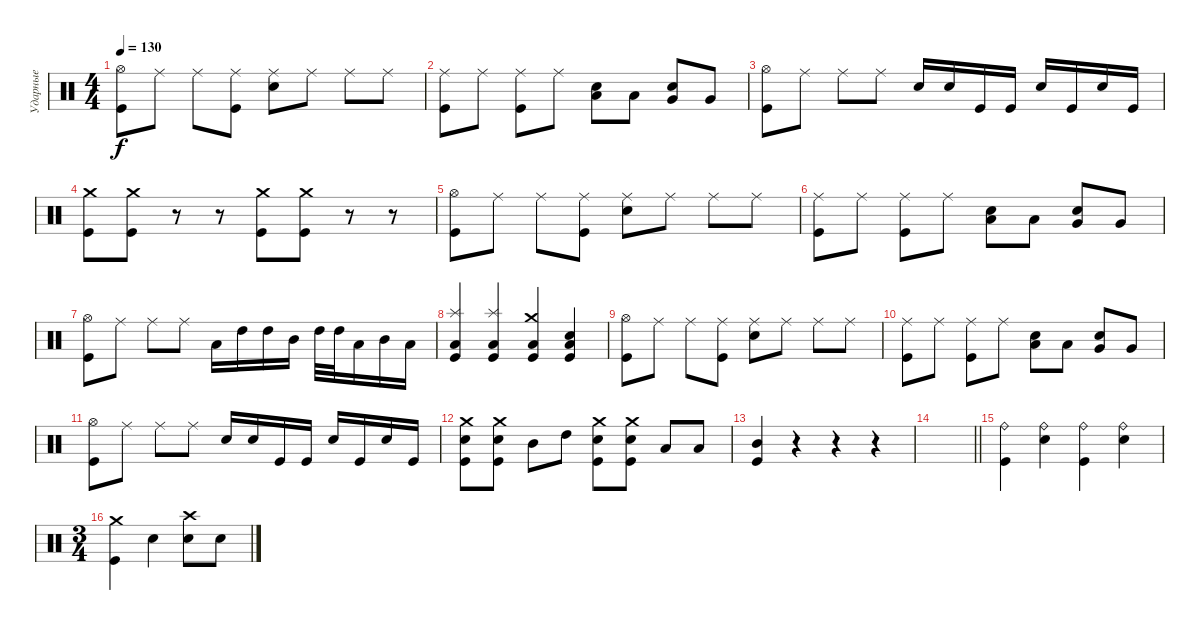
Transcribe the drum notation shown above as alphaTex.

\track ("Ударные" "Ударные") {instrument percussion}
\staff {score}
\articulation defaults
\ts (4 4)
\tempo 130
\clef neutral
\ks c
("Kick (hit)" "Hi-Hat (open)").8{dy f} "Ride (middle)".8 "Ride (middle)".8 ("Kick (hit)" "Ride (middle)").8 ("Electric Snare (hit)" "Ride (middle)").8 "Ride (middle)".8 "Ride (middle)".8 "Ride (middle)".8 |
("Kick (hit)" "Ride (middle)").8 "Ride (middle)".8 ("Kick (hit)" "Ride (middle)").8 "Ride (middle)".8 ("Low Tom (hit)" "Electric Snare (hit)").8 "Low Tom (hit)".8 ("Very Low Tom (hit)" "Electric Snare (hit)").8 "Very Low Tom (hit)".8 |
("Kick (hit)" "Hi-Hat (open)").8 "Ride (middle)".8 "Ride (middle)".8 "Ride (middle)".8 "Electric Snare (hit)".16 "Electric Snare (hit)".16 "Kick (hit)".16 "Kick (hit)".16 "Electric Snare (hit)".16 "Kick (hit)".16 "Electric Snare (hit)".16 "Kick (hit)".16 |
("Crash medium (hit)" "Kick (hit)").8 ("Crash medium (hit)" "Kick (hit)").8 r.8 r.8 ("Crash medium (hit)" "Kick (hit)").8 ("Crash medium (hit)" "Kick (hit)").8 r.8 r.8 |
("Kick (hit)" "Hi-Hat (open)").8 "Ride (middle)".8 "Ride (middle)".8 ("Kick (hit)" "Ride (middle)").8 ("Electric Snare (hit)" "Ride (middle)").8 "Ride (middle)".8 "Ride (middle)".8 "Ride (middle)".8 |
("Kick (hit)" "Ride (middle)").8 "Ride (middle)".8 ("Kick (hit)" "Ride (middle)").8 "Ride (middle)".8 ("Low Tom (hit)" "Electric Snare (hit)").8 "Low Tom (hit)".8 ("Very Low Tom (hit)" "Electric Snare (hit)").8 "Very Low Tom (hit)".8 |
("Kick (hit)" "Hi-Hat (open)").8 "Ride (middle)".8 "Ride (middle)".8 "Ride (middle)".8 "Low Tom (hit)".16 "High Tom (hit)".16 "High Tom (hit)".16 "Mid Tom (hit)".16 "High Tom (hit)".32 "High Tom (hit)".32 "Low Tom (hit)".16 "Mid Tom (hit)".16 "Low Tom (hit)".16 |
("Splash (hit)" "Kick (hit)" "Low Floor Tom (hit)").4 ("Splash (hit)" "Kick (hit)" "Low Floor Tom (hit)").4 ("Crash medium (hit)" "Kick (hit)" "Low Floor Tom (hit)").4 ("Electric Snare (hit)" "Kick (hit)" "Low Floor Tom (hit)").4 |
("Kick (hit)" "Hi-Hat (open)").8 "Ride (middle)".8 "Ride (middle)".8 ("Kick (hit)" "Ride (middle)").8 ("Electric Snare (hit)" "Ride (middle)").8 "Ride (middle)".8 "Ride (middle)".8 "Ride (middle)".8 |
("Kick (hit)" "Ride (middle)").8 "Ride (middle)".8 ("Kick (hit)" "Ride (middle)").8 "Ride (middle)".8 ("Low Tom (hit)" "Electric Snare (hit)").8 "Low Tom (hit)".8 ("Very Low Tom (hit)" "Electric Snare (hit)").8 "Very Low Tom (hit)".8 |
("Kick (hit)" "Hi-Hat (open)").8 "Ride (middle)".8 "Ride (middle)".8 "Ride (middle)".8 "Electric Snare (hit)".16 "Electric Snare (hit)".16 "Kick (hit)".16 "Kick (hit)".16 "Electric Snare (hit)".16 "Kick (hit)".16 "Electric Snare (hit)".16 "Kick (hit)".16 |
("Crash medium (hit)" "Electric Snare (hit)" "Kick (hit)").8 ("Crash medium (hit)" "Electric Snare (hit)" "Kick (hit)").8 "Mid Tom (hit)".8 "High Tom (hit)".8 ("Crash medium (hit)" "Electric Snare (hit)" "Kick (hit)").8 ("Crash medium (hit)" "Electric Snare (hit)" "Kick (hit)").8 "Low Tom (hit)".8 "Low Tom (hit)".8 |
("Kick (hit)" "Mid Tom (hit)").4 r.4 r.4 r.4 |
\barLineRight lightlight
|
\section ("" " ")
("Ride (bell)" "Kick (hit)").4 ("Ride (bell)" "Electric Snare (hit)").4 ("Ride (bell)" "Kick (hit)").4 ("Ride (bell)" "Electric Snare (hit)").4 |
\ts (3 4)
("Crash medium (hit)" "Kick (hit)").4 "Electric Snare (hit)".4 ("Crash high (hit)" "Electric Snare (hit)").8 "Electric Snare (hit)".8
